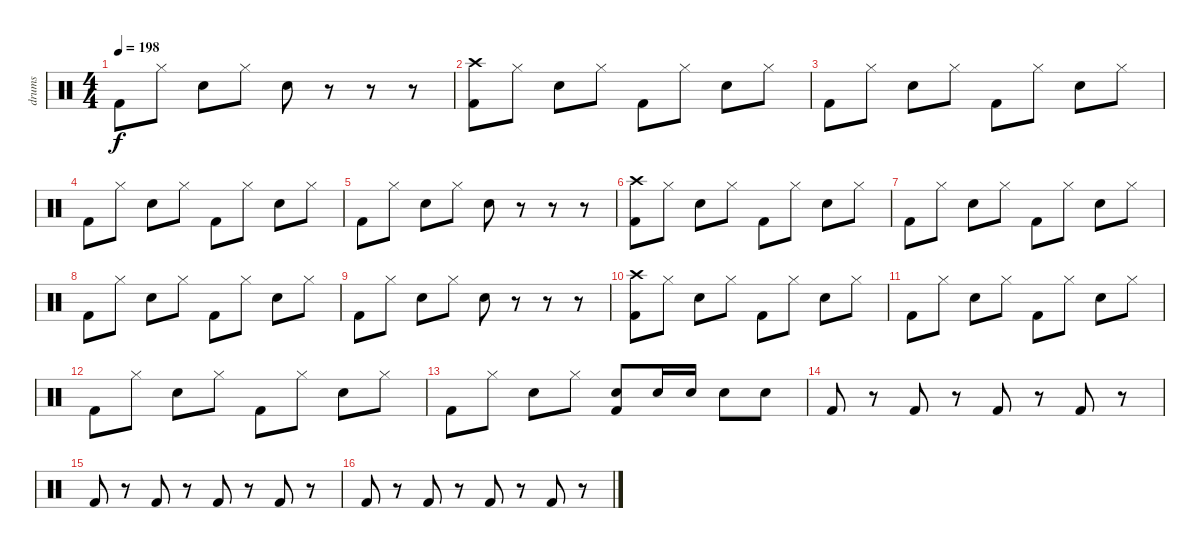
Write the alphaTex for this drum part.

\track ("drums" "drums") {instrument percussion}
\staff {score}
\articulation defaults
\ts (4 4)
\tempo 198
\clef neutral
\ks c "Kick (hit) 2".8{dy f} "Hi-Hat (closed)".8 "Snare (hit) 2".8 "Hi-Hat (closed)".8 "Snare (hit) 2".8
r.8 r.8 r.8 |
("Crash high (hit)" "Kick (hit) 2").8 "Hi-Hat (closed)".8 "Snare (hit) 2".8 "Hi-Hat (closed)".8 "Kick (hit) 2".8 "Hi-Hat (closed)".8 "Snare (hit) 2".8 "Hi-Hat (closed)".8 |
"Kick (hit) 2".8 "Hi-Hat (closed)".8 "Snare (hit) 2".8 "Hi-Hat (closed)".8 "Kick (hit) 2".8 "Hi-Hat (closed)".8 "Snare (hit) 2".8 "Hi-Hat (closed)".8 |
"Kick (hit) 2".8 "Hi-Hat (closed)".8 "Snare (hit) 2".8 "Hi-Hat (closed)".8 "Kick (hit) 2".8 "Hi-Hat (closed)".8 "Snare (hit) 2".8 "Hi-Hat (closed)".8 |
"Kick (hit) 2".8 "Hi-Hat (closed)".8 "Snare (hit) 2".8 "Hi-Hat (closed)".8 "Snare (hit) 2".8 r.8 r.8 r.8 |
("Crash high (hit)" "Kick (hit) 2").8 "Hi-Hat (closed)".8 "Snare (hit) 2".8 "Hi-Hat (closed)".8 "Kick (hit) 2".8 "Hi-Hat (closed)".8 "Snare (hit) 2".8 "Hi-Hat (closed)".8 |
"Kick (hit) 2".8 "Hi-Hat (closed)".8 "Snare (hit) 2".8 "Hi-Hat (closed)".8 "Kick (hit) 2".8 "Hi-Hat (closed)".8 "Snare (hit) 2".8 "Hi-Hat (closed)".8 |
"Kick (hit) 2".8 "Hi-Hat (closed)".8 "Snare (hit) 2".8 "Hi-Hat (closed)".8 "Kick (hit) 2".8 "Hi-Hat (closed)".8 "Snare (hit) 2".8 "Hi-Hat (closed)".8 |
"Kick (hit) 2".8 "Hi-Hat (closed)".8 "Snare (hit) 2".8 "Hi-Hat (closed)".8 "Snare (hit) 2".8 r.8 r.8 r.8 |
("Crash high (hit)" "Kick (hit) 2").8 "Hi-Hat (closed)".8 "Snare (hit) 2".8 "Hi-Hat (closed)".8 "Kick (hit) 2".8 "Hi-Hat (closed)".8 "Snare (hit) 2".8 "Hi-Hat (closed)".8 |
"Kick (hit) 2".8 "Hi-Hat (closed)".8 "Snare (hit) 2".8 "Hi-Hat (closed)".8 "Kick (hit) 2".8 "Hi-Hat (closed)".8 "Snare (hit) 2".8 "Hi-Hat (closed)".8 |
"Kick (hit) 2".8 "Hi-Hat (closed)".8 "Snare (hit) 2".8 "Hi-Hat (closed)".8 "Kick (hit) 2".8 "Hi-Hat (closed)".8 "Snare (hit) 2".8 "Hi-Hat (closed)".8 |
"Kick (hit) 2".8 "Hi-Hat (closed)".8 "Snare (hit) 2".8 "Hi-Hat (closed)".8 ("Kick (hit) 2" "Snare (hit) 2").8 "Electric Snare (hit)".16 "Electric Snare (hit)".16 "Electric Snare (hit)".8 "Electric Snare (hit)".8 |
"Kick (hit) 2".8 r.8 "Kick (hit) 2".8 r.8 "Kick (hit) 2".8 r.8 "Kick (hit) 2".8 r.8 |
"Kick (hit) 2".8 r.8 "Kick (hit) 2".8 r.8 "Kick (hit) 2".8 r.8 "Kick (hit) 2".8 r.8 |
"Kick (hit) 2".8 r.8 "Kick (hit) 2".8 r.8 "Kick (hit) 2".8 r.8 "Kick (hit) 2".8 r.8
